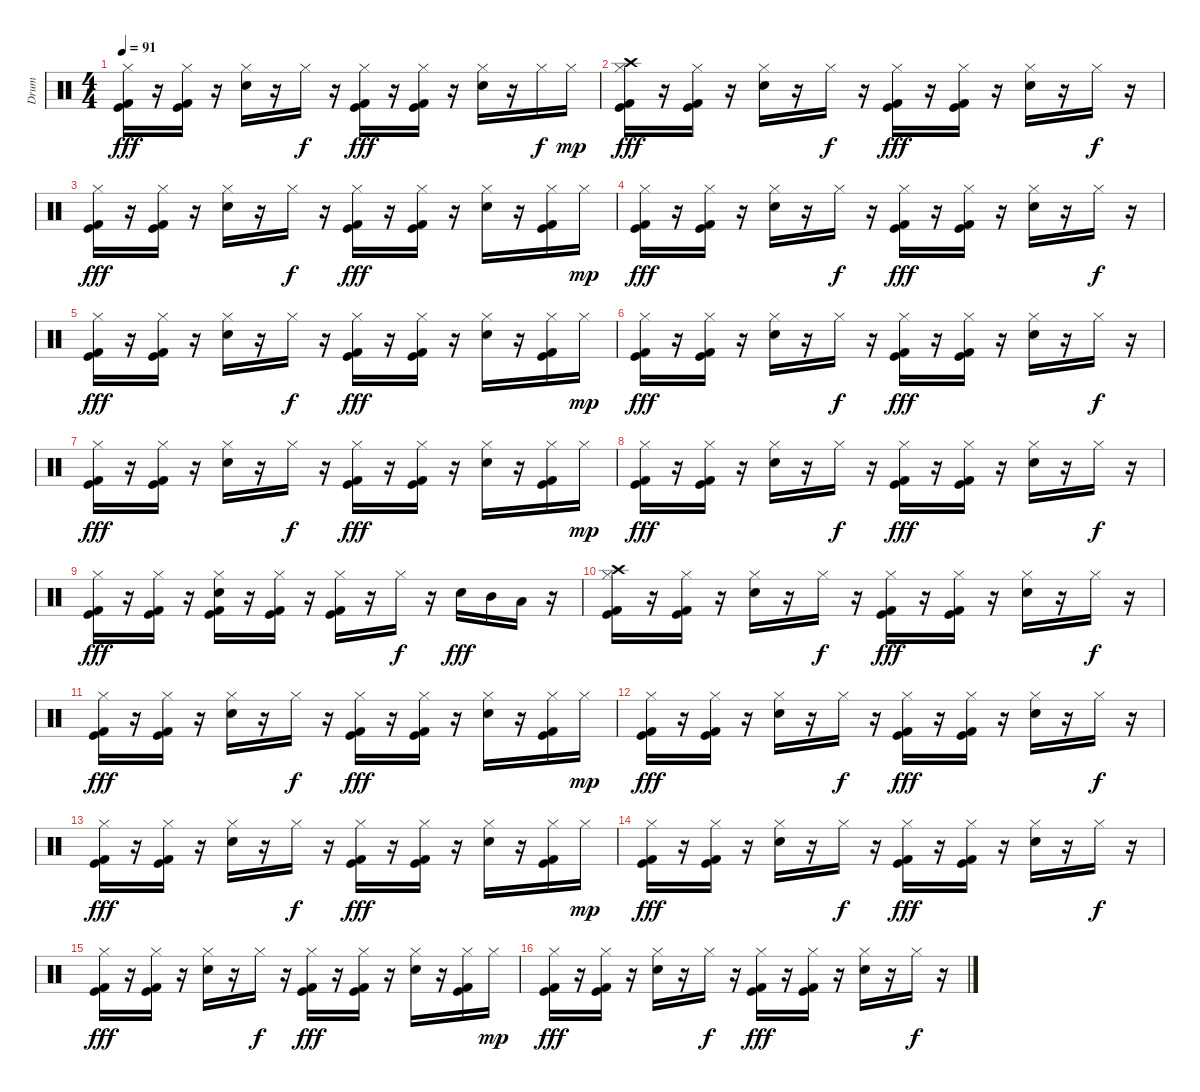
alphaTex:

\track ("Drum" "Drum") {instrument percussion}
\staff {score}
\articulation defaults
\ts (4 4)
\tempo 91
\clef neutral
\ks c
("Kick (hit)" "Kick (hit) 2" "Hi-Hat (closed)").16{dy fff} r.16 ("Kick (hit)" "Kick (hit) 2" "Hi-Hat (closed)").16 r.16 ("Hi-Hat (closed)" "Electric Snare (hit)").16 r.16 "Hi-Hat (closed)".16{dy f} r.16 ("Kick (hit)" "Kick (hit) 2" "Hi-Hat (closed)").16{dy fff} r.16 ("Kick (hit)" "Kick (hit) 2" "Hi-Hat (closed)").16 r.16 ("Hi-Hat (closed)" "Electric Snare (hit)").16 r.16 "Hi-Hat (closed)".16{dy f} "Hi-Hat (closed)".16{dy mp} |
("Crash high (hit)" "Kick (hit)" "Kick (hit) 2" "Hi-Hat (closed)").16{dy fff} r.16 ("Kick (hit)" "Kick (hit) 2" "Hi-Hat (closed)").16 r.16 ("Electric Snare (hit)" "Hi-Hat (closed)").16 r.16 "Hi-Hat (closed)".16{dy f} r.16 ("Kick (hit)" "Kick (hit) 2" "Hi-Hat (closed)").16{dy fff} r.16 ("Kick (hit)" "Kick (hit) 2" "Hi-Hat (closed)").16 r.16 ("Electric Snare (hit)" "Hi-Hat (closed)").16 r.16 "Hi-Hat (closed)".16{dy f} r.16 |
("Kick (hit)" "Kick (hit) 2" "Hi-Hat (closed)").16{dy fff} r.16 ("Kick (hit)" "Kick (hit) 2" "Hi-Hat (closed)").16 r.16 ("Electric Snare (hit)" "Hi-Hat (closed)").16 r.16 "Hi-Hat (closed)".16{dy f} r.16 ("Kick (hit)" "Kick (hit) 2" "Hi-Hat (closed)").16{dy fff} r.16 ("Kick (hit)" "Kick (hit) 2" "Hi-Hat (closed)").16 r.16 ("Electric Snare (hit)" "Hi-Hat (closed)").16 r.16 ("Kick (hit)" "Kick (hit) 2" "Hi-Hat (closed)").16 "Hi-Hat (closed)".16{dy mp} |
("Kick (hit)" "Kick (hit) 2" "Hi-Hat (closed)").16{dy fff} r.16 ("Kick (hit)" "Kick (hit) 2" "Hi-Hat (closed)").16 r.16 ("Electric Snare (hit)" "Hi-Hat (closed)").16 r.16 "Hi-Hat (closed)".16{dy f} r.16 ("Kick (hit)" "Kick (hit) 2" "Hi-Hat (closed)").16{dy fff} r.16 ("Kick (hit)" "Kick (hit) 2" "Hi-Hat (closed)").16 r.16 ("Electric Snare (hit)" "Hi-Hat (closed)").16 r.16 "Hi-Hat (closed)".16{dy f} r.16 |
("Kick (hit)" "Kick (hit) 2" "Hi-Hat (closed)").16{dy fff} r.16 ("Kick (hit)" "Kick (hit) 2" "Hi-Hat (closed)").16 r.16 ("Electric Snare (hit)" "Hi-Hat (closed)").16 r.16 "Hi-Hat (closed)".16{dy f} r.16 ("Kick (hit)" "Kick (hit) 2" "Hi-Hat (closed)").16{dy fff} r.16 ("Kick (hit)" "Kick (hit) 2" "Hi-Hat (closed)").16 r.16 ("Electric Snare (hit)" "Hi-Hat (closed)").16 r.16 ("Kick (hit)" "Kick (hit) 2" "Hi-Hat (closed)").16 "Hi-Hat (closed)".16{dy mp} |
("Kick (hit)" "Kick (hit) 2" "Hi-Hat (closed)").16{dy fff} r.16 ("Kick (hit)" "Kick (hit) 2" "Hi-Hat (closed)").16 r.16 ("Electric Snare (hit)" "Hi-Hat (closed)").16 r.16 "Hi-Hat (closed)".16{dy f} r.16 ("Kick (hit)" "Kick (hit) 2" "Hi-Hat (closed)").16{dy fff} r.16 ("Kick (hit)" "Kick (hit) 2" "Hi-Hat (closed)").16 r.16 ("Electric Snare (hit)" "Hi-Hat (closed)").16 r.16 "Hi-Hat (closed)".16{dy f} r.16 |
("Kick (hit)" "Kick (hit) 2" "Hi-Hat (closed)").16{dy fff} r.16 ("Kick (hit)" "Kick (hit) 2" "Hi-Hat (closed)").16 r.16 ("Electric Snare (hit)" "Hi-Hat (closed)").16 r.16 "Hi-Hat (closed)".16{dy f} r.16 ("Kick (hit)" "Kick (hit) 2" "Hi-Hat (closed)").16{dy fff} r.16 ("Kick (hit)" "Kick (hit) 2" "Hi-Hat (closed)").16 r.16 ("Electric Snare (hit)" "Hi-Hat (closed)").16 r.16 ("Kick (hit)" "Kick (hit) 2" "Hi-Hat (closed)").16 "Hi-Hat (closed)".16{dy mp} |
("Kick (hit)" "Kick (hit) 2" "Hi-Hat (closed)").16{dy fff} r.16 ("Kick (hit)" "Kick (hit) 2" "Hi-Hat (closed)").16 r.16 ("Electric Snare (hit)" "Hi-Hat (closed)").16 r.16 "Hi-Hat (closed)".16{dy f} r.16 ("Kick (hit)" "Kick (hit) 2" "Hi-Hat (closed)").16{dy fff} r.16 ("Kick (hit)" "Kick (hit) 2" "Hi-Hat (closed)").16 r.16 ("Electric Snare (hit)" "Hi-Hat (closed)").16 r.16 "Hi-Hat (closed)".16{dy f} r.16 |
("Kick (hit)" "Kick (hit) 2" "Hi-Hat (closed)").16{dy fff} r.16 ("Kick (hit)" "Kick (hit) 2" "Hi-Hat (closed)").16 r.16 ("Electric Snare (hit)" "Hi-Hat (closed)" "Kick (hit)" "Kick (hit) 2").16 r.16 ("Hi-Hat (closed)" "Kick (hit)" "Kick (hit) 2").16 r.16 ("Kick (hit)" "Kick (hit) 2" "Hi-Hat (closed)").16 r.16 "Hi-Hat (closed)".16{dy f} r.16 "Electric Snare (hit)".16{dy fff} "Mid Tom (hit)".16 "Low Tom (hit)".16 r.16 |
("Crash high (hit)" "Kick (hit)" "Kick (hit) 2" "Hi-Hat (closed)").16 r.16 ("Kick (hit)" "Kick (hit) 2" "Hi-Hat (closed)").16 r.16 ("Hi-Hat (closed)" "Electric Snare (hit)").16 r.16 "Hi-Hat (closed)".16{dy f} r.16 ("Kick (hit)" "Kick (hit) 2" "Hi-Hat (closed)").16{dy fff} r.16 ("Kick (hit)" "Kick (hit) 2" "Hi-Hat (closed)").16 r.16 ("Hi-Hat (closed)" "Electric Snare (hit)").16 r.16 "Hi-Hat (closed)".16{dy f} r.16 |
("Kick (hit)" "Kick (hit) 2" "Hi-Hat (closed)").16{dy fff} r.16 ("Kick (hit)" "Kick (hit) 2" "Hi-Hat (closed)").16 r.16 ("Hi-Hat (closed)" "Electric Snare (hit)").16 r.16 "Hi-Hat (closed)".16{dy f} r.16 ("Kick (hit)" "Kick (hit) 2" "Hi-Hat (closed)").16{dy fff} r.16 ("Kick (hit)" "Kick (hit) 2" "Hi-Hat (closed)").16 r.16 ("Hi-Hat (closed)" "Electric Snare (hit)").16 r.16 ("Kick (hit)" "Kick (hit) 2" "Hi-Hat (closed)").16 "Hi-Hat (closed)".16{dy mp} |
("Kick (hit)" "Kick (hit) 2" "Hi-Hat (closed)").16{dy fff} r.16 ("Kick (hit)" "Kick (hit) 2" "Hi-Hat (closed)").16 r.16 ("Hi-Hat (closed)" "Electric Snare (hit)").16 r.16 "Hi-Hat (closed)".16{dy f} r.16 ("Kick (hit)" "Kick (hit) 2" "Hi-Hat (closed)").16{dy fff} r.16 ("Kick (hit)" "Kick (hit) 2" "Hi-Hat (closed)").16 r.16 ("Hi-Hat (closed)" "Electric Snare (hit)").16 r.16 "Hi-Hat (closed)".16{dy f} r.16 |
("Kick (hit)" "Kick (hit) 2" "Hi-Hat (closed)").16{dy fff} r.16 ("Kick (hit)" "Kick (hit) 2" "Hi-Hat (closed)").16 r.16 ("Hi-Hat (closed)" "Electric Snare (hit)").16 r.16 "Hi-Hat (closed)".16{dy f} r.16 ("Kick (hit)" "Kick (hit) 2" "Hi-Hat (closed)").16{dy fff} r.16 ("Kick (hit)" "Kick (hit) 2" "Hi-Hat (closed)").16 r.16 ("Hi-Hat (closed)" "Electric Snare (hit)").16 r.16 ("Kick (hit)" "Kick (hit) 2" "Hi-Hat (closed)").16 "Hi-Hat (closed)".16{dy mp} |
("Kick (hit)" "Kick (hit) 2" "Hi-Hat (closed)").16{dy fff} r.16 ("Kick (hit)" "Kick (hit) 2" "Hi-Hat (closed)").16 r.16 ("Hi-Hat (closed)" "Electric Snare (hit)").16 r.16 "Hi-Hat (closed)".16{dy f} r.16 ("Kick (hit)" "Kick (hit) 2" "Hi-Hat (closed)").16{dy fff} r.16 ("Kick (hit)" "Kick (hit) 2" "Hi-Hat (closed)").16 r.16 ("Hi-Hat (closed)" "Electric Snare (hit)").16 r.16 "Hi-Hat (closed)".16{dy f} r.16 |
("Kick (hit)" "Kick (hit) 2" "Hi-Hat (closed)").16{dy fff} r.16 ("Kick (hit)" "Kick (hit) 2" "Hi-Hat (closed)").16 r.16 ("Hi-Hat (closed)" "Electric Snare (hit)").16 r.16 "Hi-Hat (closed)".16{dy f} r.16 ("Kick (hit)" "Kick (hit) 2" "Hi-Hat (closed)").16{dy fff} r.16 ("Kick (hit)" "Kick (hit) 2" "Hi-Hat (closed)").16 r.16 ("Hi-Hat (closed)" "Electric Snare (hit)").16 r.16 ("Kick (hit)" "Kick (hit) 2" "Hi-Hat (closed)").16 "Hi-Hat (closed)".16{dy mp} |
("Kick (hit)" "Kick (hit) 2" "Hi-Hat (closed)").16{dy fff} r.16 ("Kick (hit)" "Kick (hit) 2" "Hi-Hat (closed)").16 r.16 ("Hi-Hat (closed)" "Electric Snare (hit)").16 r.16 "Hi-Hat (closed)".16{dy f} r.16 ("Kick (hit)" "Kick (hit) 2" "Hi-Hat (closed)").16{dy fff} r.16 ("Kick (hit)" "Kick (hit) 2" "Hi-Hat (closed)").16 r.16 ("Hi-Hat (closed)" "Electric Snare (hit)").16 r.16 "Hi-Hat (closed)".16{dy f} r.16
